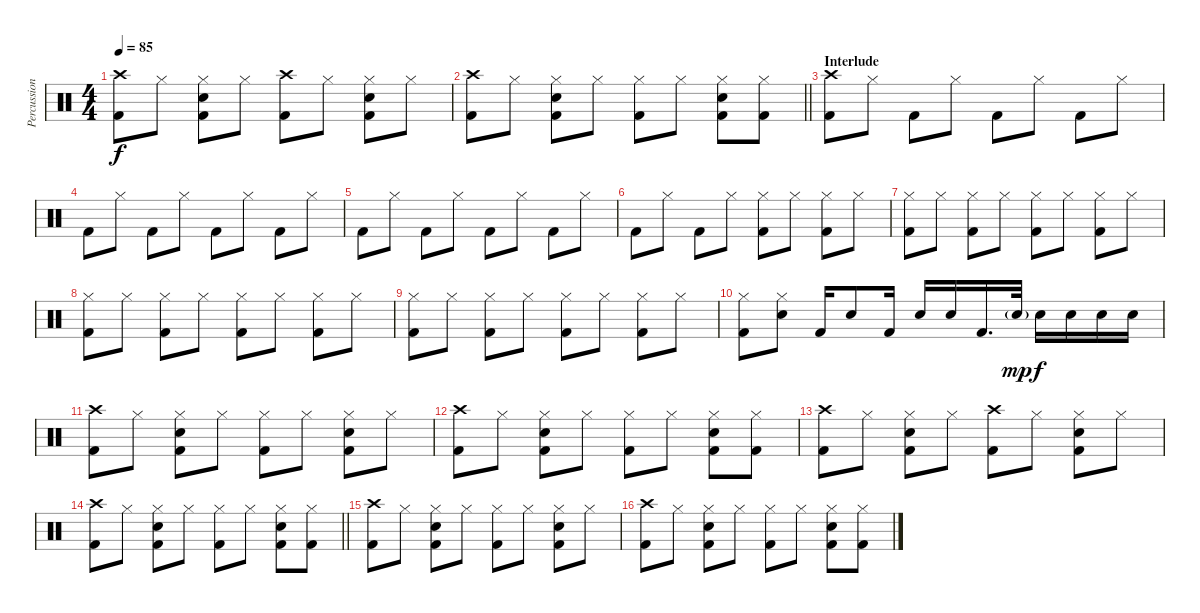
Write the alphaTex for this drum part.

\track ("Percussion" "Percussion") {instrument percussion}
\staff {score}
\articulation defaults
\ts (4 4)
\tempo 85
\clef neutral
\ks c
("Crash high (hit)" "Kick (hit) 2").8{dy f} "Hi-Hat (closed)".8 ("Hi-Hat (closed)" "Electric Snare (hit)" "Kick (hit) 2").8 "Hi-Hat (closed)".8 ("Crash high (hit)" "Kick (hit) 2").8 "Hi-Hat (closed)".8 ("Hi-Hat (closed)" "Electric Snare (hit)" "Kick (hit) 2").8 "Hi-Hat (closed)".8 |
\barLineRight lightlight
("Crash high (hit)" "Kick (hit) 2").8 "Hi-Hat (closed)".8 ("Hi-Hat (closed)" "Electric Snare (hit)" "Kick (hit) 2").8 "Hi-Hat (closed)".8 ("Hi-Hat (closed)" "Kick (hit) 2").8 "Hi-Hat (closed)".8 ("Hi-Hat (closed)" "Electric Snare (hit)" "Kick (hit) 2").8 ("Hi-Hat (closed)" "Kick (hit) 2").8 |
\section ("" "Interlude")
("Crash high (hit)" "Kick (hit) 2").8 "Hi-Hat (closed)".8 "Kick (hit) 2".8 "Hi-Hat (closed)".8 "Kick (hit) 2".8 "Hi-Hat (closed)".8 "Kick (hit) 2".8 "Hi-Hat (closed)".8 |
"Kick (hit) 2".8 "Hi-Hat (closed)".8 "Kick (hit) 2".8 "Hi-Hat (closed)".8 "Kick (hit) 2".8 "Hi-Hat (closed)".8 "Kick (hit) 2".8 "Hi-Hat (closed)".8 |
"Kick (hit) 2".8 "Hi-Hat (closed)".8 "Kick (hit) 2".8 "Hi-Hat (closed)".8 "Kick (hit) 2".8 "Hi-Hat (closed)".8 "Kick (hit) 2".8 "Hi-Hat (closed)".8 |
"Kick (hit) 2".8 "Hi-Hat (closed)".8 "Kick (hit) 2".8 "Hi-Hat (closed)".8 ("Hi-Hat (closed)" "Kick (hit) 2").8 "Hi-Hat (closed)".8 ("Hi-Hat (closed)" "Kick (hit) 2").8 "Hi-Hat (closed)".8 |
("Hi-Hat (closed)" "Kick (hit) 2").8 "Hi-Hat (closed)".8 ("Hi-Hat (closed)" "Kick (hit) 2").8 "Hi-Hat (closed)".8 ("Hi-Hat (closed)" "Kick (hit) 2").8 "Hi-Hat (closed)".8 ("Hi-Hat (closed)" "Kick (hit) 2").8 "Hi-Hat (closed)".8 |
("Hi-Hat (closed)" "Kick (hit) 2").8 "Hi-Hat (closed)".8 ("Hi-Hat (closed)" "Kick (hit) 2").8 "Hi-Hat (closed)".8 ("Hi-Hat (closed)" "Kick (hit) 2").8 "Hi-Hat (closed)".8 ("Hi-Hat (closed)" "Kick (hit) 2").8 "Hi-Hat (closed)".8 |
("Hi-Hat (closed)" "Kick (hit) 2").8 "Hi-Hat (closed)".8 ("Hi-Hat (closed)" "Kick (hit) 2").8 "Hi-Hat (closed)".8 ("Hi-Hat (closed)" "Kick (hit) 2").8 "Hi-Hat (closed)".8 ("Hi-Hat (closed)" "Kick (hit) 2").8 "Hi-Hat (closed)".8 |
("Hi-Hat (closed)" "Kick (hit) 2").8 ("Hi-Hat (closed)" "Electric Snare (hit)").8 "Kick (hit) 2".16 "Electric Snare (hit)".8 "Kick (hit) 2".16 "Electric Snare (hit)".16 "Electric Snare (hit)".16 "Kick (hit) 2".16{d} "Electric Snare (hit)"{g}.32{dy mp} "Electric Snare (hit)".16{dy f} "Electric Snare (hit)".16 "Electric Snare (hit)".16 "Electric Snare (hit)".16 |
("Crash high (hit)" "Kick (hit) 2").8 "Hi-Hat (closed)".8 ("Hi-Hat (closed)" "Electric Snare (hit)" "Kick (hit) 2").8 "Hi-Hat (closed)".8 ("Hi-Hat (closed)" "Kick (hit) 2").8 "Hi-Hat (closed)".8 ("Hi-Hat (closed)" "Electric Snare (hit)" "Kick (hit) 2").8 "Hi-Hat (closed)".8 |
("Crash high (hit)" "Kick (hit) 2").8 "Hi-Hat (closed)".8 ("Hi-Hat (closed)" "Electric Snare (hit)" "Kick (hit) 2").8 "Hi-Hat (closed)".8 ("Hi-Hat (closed)" "Kick (hit) 2").8 "Hi-Hat (closed)".8 ("Hi-Hat (closed)" "Electric Snare (hit)" "Kick (hit) 2").8 ("Hi-Hat (closed)" "Kick (hit) 2").8 |
("Crash high (hit)" "Kick (hit) 2").8 "Hi-Hat (closed)".8 ("Hi-Hat (closed)" "Electric Snare (hit)" "Kick (hit) 2").8 "Hi-Hat (closed)".8 ("Crash high (hit)" "Kick (hit) 2").8 "Hi-Hat (closed)".8 ("Hi-Hat (closed)" "Electric Snare (hit)" "Kick (hit) 2").8 "Hi-Hat (closed)".8 |
\barLineRight lightlight
("Crash high (hit)" "Kick (hit) 2").8 "Hi-Hat (closed)".8 ("Hi-Hat (closed)" "Electric Snare (hit)" "Kick (hit) 2").8 "Hi-Hat (closed)".8 ("Hi-Hat (closed)" "Kick (hit) 2").8 "Hi-Hat (closed)".8 ("Hi-Hat (closed)" "Electric Snare (hit)" "Kick (hit) 2").8 ("Hi-Hat (closed)" "Kick (hit) 2").8 |
("Crash high (hit)" "Kick (hit) 2").8 "Hi-Hat (closed)".8 ("Hi-Hat (closed)" "Electric Snare (hit)" "Kick (hit) 2").8 "Hi-Hat (closed)".8 ("Hi-Hat (closed)" "Kick (hit) 2").8 "Hi-Hat (closed)".8 ("Hi-Hat (closed)" "Electric Snare (hit)" "Kick (hit) 2").8 "Hi-Hat (closed)".8 |
("Crash high (hit)" "Kick (hit) 2").8 "Hi-Hat (closed)".8 ("Hi-Hat (closed)" "Electric Snare (hit)" "Kick (hit) 2").8 "Hi-Hat (closed)".8 ("Hi-Hat (closed)" "Kick (hit) 2").8 "Hi-Hat (closed)".8 ("Hi-Hat (closed)" "Electric Snare (hit)" "Kick (hit) 2").8 ("Hi-Hat (closed)" "Kick (hit) 2").8
